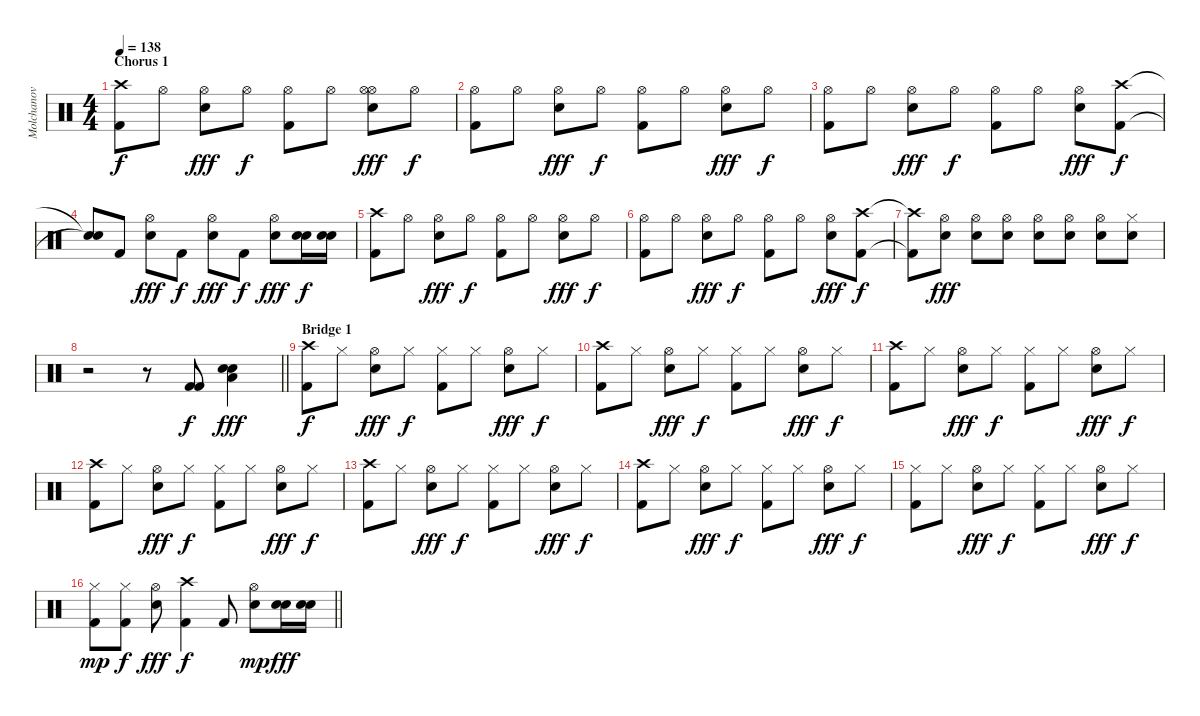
\track ("Molchanov" "Molchanov") {instrument percussion}
\staff {score}
\articulation defaults
\ts (4 4)
\section ("" "Chorus 1")
\tempo 138
\clef neutral
\ks c
("Crash high (hit)" "Kick (hit) 2").8{dy f} "Hi-Hat (open)".8 ("Hi-Hat (open)" "Electric Snare (hit)").8{dy fff} "Hi-Hat (open)".8{dy f} ("Hi-Hat (open)" "Kick (hit) 2").8 "Hi-Hat (open)".8 ("Hi-Hat (open)" "Hi-Hat (open)" "Electric Snare (hit)").8{dy fff} "Hi-Hat (open)".8{dy f} |
("Hi-Hat (open)" "Kick (hit) 2").8 "Hi-Hat (open)".8 ("Hi-Hat (open)" "Electric Snare (hit)").8{dy fff} "Hi-Hat (open)".8{dy f} ("Hi-Hat (open)" "Kick (hit) 2").8 "Hi-Hat (open)".8 ("Hi-Hat (open)" "Electric Snare (hit)").8{dy fff} "Hi-Hat (open)".8{dy f} |
("Hi-Hat (open)" "Kick (hit) 2").8 "Hi-Hat (open)".8 ("Hi-Hat (open)" "Electric Snare (hit)").8{dy fff} "Hi-Hat (open)".8{dy f} ("Hi-Hat (open)" "Kick (hit) 2").8 "Hi-Hat (open)".8 ("Hi-Hat (open)" "Electric Snare (hit)").8{dy fff} ("Crash high (hit)" "Kick (hit) 2").8{dy f} |
("Snare (hit)"{t} "Snare (hit)"{t}).8 "Kick (hit) 2".8 ("Hi-Hat (open)" "Electric Snare (hit)").8{dy fff} "Kick (hit) 2".8{dy f} ("Hi-Hat (open)" "Electric Snare (hit)").8{dy fff} "Kick (hit) 2".8{dy f} ("Hi-Hat (open)" "Electric Snare (hit)").8{dy fff} ("Electric Snare (hit)" "Electric Snare (hit)").16{dy f} ("Electric Snare (hit)" "Electric Snare (hit)").16 |
("Crash high (hit)" "Kick (hit) 2").8 "Hi-Hat (open)".8 ("Hi-Hat (open)" "Electric Snare (hit)").8{dy fff} "Hi-Hat (open)".8{dy f} ("Hi-Hat (open)" "Kick (hit) 2").8 "Hi-Hat (open)".8 ("Hi-Hat (open)" "Electric Snare (hit)").8{dy fff} "Hi-Hat (open)".8{dy f} |
("Hi-Hat (open)" "Kick (hit) 2").8 "Hi-Hat (open)".8 ("Hi-Hat (open)" "Electric Snare (hit)").8{dy fff} "Hi-Hat (open)".8{dy f} ("Hi-Hat (open)" "Kick (hit) 2").8 "Hi-Hat (open)".8 ("Hi-Hat (open)" "Electric Snare (hit)").8{dy fff} ("Crash high (hit)" "Kick (hit) 2").8{dy f} |
("Crash high (hit)"{t} "Kick (hit) 2"{t}).8 ("Hi-Hat (open)" "Electric Snare (hit)").8{dy fff} ("Hi-Hat (open)" "Electric Snare (hit)").8 ("Hi-Hat (open)" "Electric Snare (hit)").8 ("Hi-Hat (open)" "Electric Snare (hit)").8 ("Hi-Hat (open)" "Electric Snare (hit)").8 ("Hi-Hat (open)" "Electric Snare (hit)").8 ("Hi-Hat (closed)" "Electric Snare (hit)").8 |
\barLineRight lightlight
r.2 r.8 ("Kick (hit) 2" "Kick (hit) 2").8{dy f} ("Electric Snare (hit)" "Electric Snare (hit)" "Low Tom (hit)").4{dy fff} |
\section ("" "Bridge 1")
("Crash high (hit)" "Kick (hit) 2").8{dy f} "Hi-Hat (closed)".8 ("Hi-Hat (open)" "Electric Snare (hit)").8{dy fff} "Hi-Hat (closed)".8{dy f} ("Hi-Hat (closed)" "Kick (hit) 2").8 "Hi-Hat (closed)".8 ("Hi-Hat (open)" "Electric Snare (hit)").8{dy fff} "Hi-Hat (closed)".8{dy f} |
("Crash high (hit)" "Kick (hit) 2").8 "Hi-Hat (closed)".8 ("Hi-Hat (open)" "Electric Snare (hit)").8{dy fff} "Hi-Hat (closed)".8{dy f} ("Hi-Hat (closed)" "Kick (hit) 2").8 "Hi-Hat (closed)".8 ("Hi-Hat (open)" "Electric Snare (hit)").8{dy fff} "Hi-Hat (closed)".8{dy f} |
("Crash high (hit)" "Kick (hit) 2").8 "Hi-Hat (closed)".8 ("Hi-Hat (open)" "Electric Snare (hit)").8{dy fff} "Hi-Hat (closed)".8{dy f} ("Hi-Hat (closed)" "Kick (hit) 2").8 "Hi-Hat (closed)".8 ("Hi-Hat (open)" "Electric Snare (hit)").8{dy fff} "Hi-Hat (closed)".8{dy f} |
("Crash high (hit)" "Kick (hit) 2").8 "Hi-Hat (closed)".8 ("Hi-Hat (open)" "Electric Snare (hit)").8{dy fff} "Hi-Hat (closed)".8{dy f} ("Hi-Hat (closed)" "Kick (hit) 2").8 "Hi-Hat (closed)".8 ("Hi-Hat (open)" "Electric Snare (hit)").8{dy fff} "Hi-Hat (closed)".8{dy f} |
("Crash high (hit)" "Kick (hit) 2").8 "Hi-Hat (closed)".8 ("Hi-Hat (open)" "Electric Snare (hit)").8{dy fff} "Hi-Hat (closed)".8{dy f} ("Hi-Hat (closed)" "Kick (hit) 2").8 "Hi-Hat (closed)".8 ("Hi-Hat (open)" "Electric Snare (hit)").8{dy fff} "Hi-Hat (closed)".8{dy f} |
("Crash high (hit)" "Kick (hit) 2").8 "Hi-Hat (closed)".8 ("Hi-Hat (open)" "Electric Snare (hit)").8{dy fff} "Hi-Hat (closed)".8{dy f} ("Hi-Hat (closed)" "Kick (hit) 2").8 "Hi-Hat (closed)".8 ("Hi-Hat (open)" "Electric Snare (hit)").8{dy fff} "Hi-Hat (closed)".8{dy f} |
("Hi-Hat (closed)" "Kick (hit) 2").8 "Hi-Hat (closed)".8 ("Hi-Hat (open)" "Electric Snare (hit)").8{dy fff} "Hi-Hat (closed)".8{dy f} ("Hi-Hat (closed)" "Kick (hit) 2").8 "Hi-Hat (closed)".8 ("Hi-Hat (open)" "Electric Snare (hit)").8{dy fff} "Hi-Hat (closed)".8{dy f} |
\barLineRight lightlight
("Hi-Hat (closed)" "Kick (hit) 2").8{dy mp} ("Hi-Hat (closed)" "Kick (hit) 2").8{dy f} ("Hi-Hat (open)" "Electric Snare (hit)").8{dy fff} ("Crash high (hit)" "Kick (hit) 2").4{dy f} "Kick (hit) 2".8 ("Hi-Hat (open)" "Electric Snare (hit)").8{dy mp} ("Electric Snare (hit)" "Electric Snare (hit)").16{dy fff} ("Electric Snare (hit)" "Electric Snare (hit)").16
